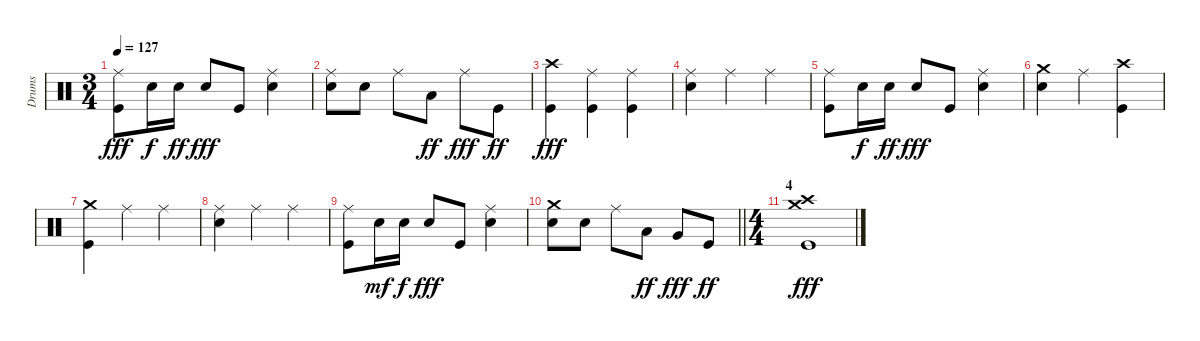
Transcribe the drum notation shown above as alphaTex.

\track ("Drums" "Drums") {instrument percussion}
\staff {score}
\articulation defaults
\ts (3 4)
\tempo 127
\clef neutral
\ks c
("Ride (middle)" "Kick (hit)").8{dy fff} "Snare (hit) 2".16{dy f} "Snare (hit) 2".16{dy ff} "Snare (hit) 2".8{dy fff} "Kick (hit)".8 ("Ride (middle)" "Snare (hit) 2").4 |
("Ride (middle)" "Snare (hit) 2").8 "Snare (hit) 2".8 "Ride (middle)".8 "Low Tom (hit)".8{dy ff} "Ride (middle)".8{dy fff} "Kick (hit)".8{dy ff} |
("Crash high (hit)" "Kick (hit)").4{dy fff} ("Ride (middle)" "Kick (hit)").4 ("Ride (middle)" "Kick (hit)").4 |
("Ride (middle)" "Snare (hit) 2").4 "Ride (middle)".4 "Ride (middle)".4 |
("Ride (middle)" "Kick (hit)").8 "Snare (hit) 2".16{dy f} "Snare (hit) 2".16{dy ff} "Snare (hit) 2".8{dy fff} "Kick (hit)".8 ("Ride (middle)" "Snare (hit) 2").4 |
("Crash medium (hit)" "Snare (hit) 2").4 "Ride (middle)".4 ("Crash high (hit)" "Kick (hit)").4 |
("Crash medium (hit)" "Kick (hit)").4 "Ride (middle)".4 "Ride (middle)".4 |
("Ride (middle)" "Snare (hit) 2").4 "Ride (middle)".4 "Ride (middle)".4 |
("Ride (middle)" "Kick (hit)").8 "Snare (hit) 2".16{dy mf} "Snare (hit) 2".16{dy f} "Snare (hit) 2".8{dy fff} "Kick (hit)".8 ("Ride (middle)" "Snare (hit) 2").4 |
\barLineRight lightlight
("Crash medium (hit)" "Snare (hit) 2").8 "Snare (hit) 2".8 "Ride (middle)".8 "Low Tom (hit)".8{dy ff} "Very Low Tom (hit)".8{dy fff} "Kick (hit)".8{dy ff} |
\ts (4 4)
\section ("" "4")
("Crash medium (hit)" "Crash high (hit)" "Kick (hit)").1{dy fff}
